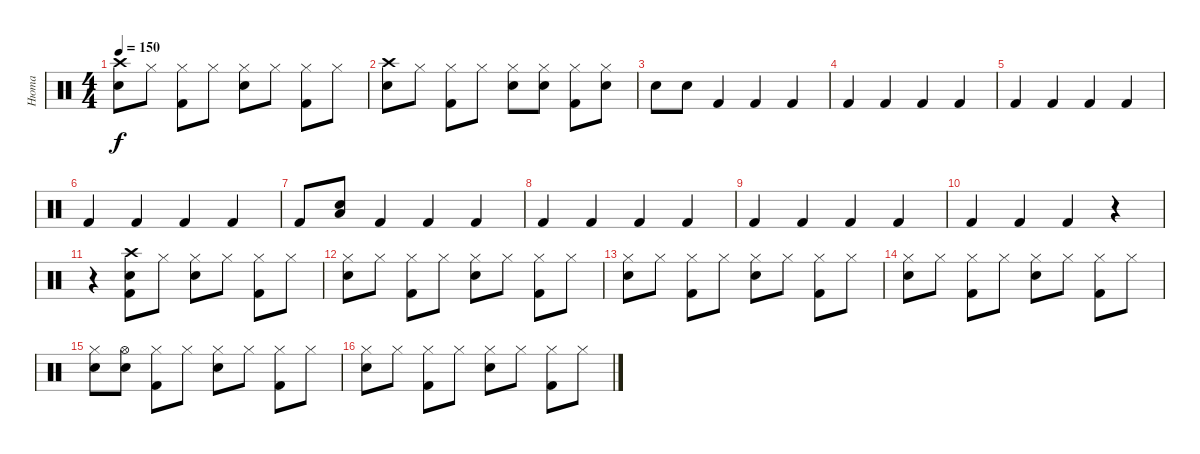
\track ("Нюта" "Нюта") {instrument percussion}
\staff {score}
\articulation defaults
\ts (4 4)
\tempo 150
\clef neutral
\ks c
("Crash high (hit)" "Electric Snare (hit)").8{dy f} "Hi-Hat (closed)".8 ("Hi-Hat (closed)" "Kick (hit) 2").8 "Hi-Hat (closed)".8 ("Hi-Hat (closed)" "Electric Snare (hit)").8 "Hi-Hat (closed)".8 ("Hi-Hat (closed)" "Kick (hit) 2").8 "Hi-Hat (closed)".8 |
("Crash high (hit)" "Electric Snare (hit)").8 "Hi-Hat (closed)".8 ("Hi-Hat (closed)" "Kick (hit) 2").8 "Hi-Hat (closed)".8 ("Hi-Hat (closed)" "Electric Snare (hit)").8 ("Hi-Hat (closed)" "Snare (hit)").8 ("Hi-Hat (closed)" "Kick (hit) 2").8 ("Hi-Hat (closed)" "Snare (hit)").8 |
"Electric Snare (hit)".8 "Electric Snare (hit)".8 "Kick (hit) 2".4 "Kick (hit) 2".4 "Kick (hit) 2".4 |
"Kick (hit) 2".4 "Kick (hit) 2".4 "Kick (hit) 2".4 "Kick (hit) 2".4 |
"Kick (hit) 2".4 "Kick (hit) 2".4 "Kick (hit) 2".4 "Kick (hit) 2".4 |
"Kick (hit) 2".4 "Kick (hit) 2".4 "Kick (hit) 2".4 "Kick (hit) 2".4 |
"Kick (hit) 2".8 ("Snare (hit) 2" "Low Tom (hit)").8 "Kick (hit) 2".4 "Kick (hit) 2".4 "Kick (hit) 2".4 |
"Kick (hit) 2".4 "Kick (hit) 2".4 "Kick (hit) 2".4 "Kick (hit) 2".4 |
"Kick (hit) 2".4 "Kick (hit) 2".4 "Kick (hit) 2".4 "Kick (hit) 2".4 |
"Kick (hit) 2".4 "Kick (hit) 2".4 "Kick (hit) 2".4 r.4 |
r.4 ("Snare (hit)" "Kick (hit) 2" "Crash high (hit)").8 "Hi-Hat (closed)".8 ("Hi-Hat (closed)" "Electric Snare (hit)").8 "Hi-Hat (closed)".8 ("Hi-Hat (closed)" "Kick (hit) 2").8 "Hi-Hat (closed)".8 |
("Hi-Hat (closed)" "Electric Snare (hit)").8 "Hi-Hat (closed)".8 ("Hi-Hat (closed)" "Kick (hit) 2").8 "Hi-Hat (closed)".8 ("Hi-Hat (closed)" "Electric Snare (hit)").8 "Hi-Hat (closed)".8 ("Hi-Hat (closed)" "Kick (hit) 2").8 "Hi-Hat (closed)".8 |
("Hi-Hat (closed)" "Electric Snare (hit)").8 "Hi-Hat (closed)".8 ("Hi-Hat (closed)" "Kick (hit) 2").8 "Hi-Hat (closed)".8 ("Hi-Hat (closed)" "Electric Snare (hit)").8 "Hi-Hat (closed)".8 ("Hi-Hat (closed)" "Kick (hit) 2").8 "Hi-Hat (closed)".8 |
("Hi-Hat (closed)" "Electric Snare (hit)").8 "Hi-Hat (closed)".8 ("Hi-Hat (closed)" "Kick (hit) 2").8 "Hi-Hat (closed)".8 ("Hi-Hat (closed)" "Electric Snare (hit)").8 "Hi-Hat (closed)".8 ("Hi-Hat (closed)" "Kick (hit) 2").8 "Hi-Hat (closed)".8 |
("Hi-Hat (closed)" "Electric Snare (hit)").8 ("Snare (hit)" "Hi-Hat (open)").8 ("Hi-Hat (closed)" "Kick (hit) 2").8 "Hi-Hat (closed)".8 ("Hi-Hat (closed)" "Electric Snare (hit)").8 "Hi-Hat (closed)".8 ("Hi-Hat (closed)" "Kick (hit) 2").8 "Hi-Hat (closed)".8 |
("Hi-Hat (closed)" "Electric Snare (hit)").8 "Hi-Hat (closed)".8 ("Hi-Hat (closed)" "Kick (hit) 2").8 "Hi-Hat (closed)".8 ("Hi-Hat (closed)" "Electric Snare (hit)").8 "Hi-Hat (closed)".8 ("Hi-Hat (closed)" "Kick (hit) 2").8 "Hi-Hat (closed)".8
